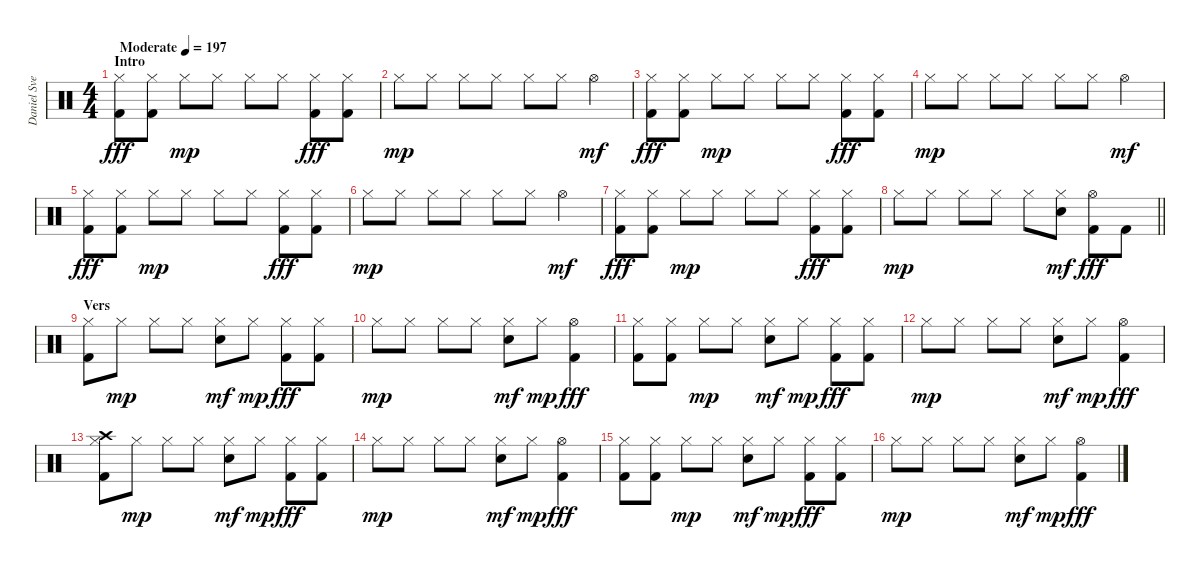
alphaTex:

\track ("Daniel Svensson" "Daniel Sve") {instrument percussion}
\staff {score}
\articulation defaults
\ts (4 4)
\section ("" "Intro")
\tempo (197 "Moderate")
\clef neutral
\ks c
("Hi-Hat (closed)" "Kick (hit) 2").8{dy fff} ("Hi-Hat (closed)" "Kick (hit) 2").8 "Hi-Hat (closed)".8{dy mp} "Hi-Hat (closed)".8 "Hi-Hat (closed)".8 "Hi-Hat (closed)".8 ("Hi-Hat (closed)" "Kick (hit) 2").8{dy fff} ("Hi-Hat (closed)" "Kick (hit) 2").8 |
"Hi-Hat (closed)".8{dy mp} "Hi-Hat (closed)".8 "Hi-Hat (closed)".8 "Hi-Hat (closed)".8 "Hi-Hat (closed)".8 "Hi-Hat (closed)".8 "Hi-Hat (open)".4{dy mf} |
("Hi-Hat (closed)" "Kick (hit) 2").8{dy fff} ("Hi-Hat (closed)" "Kick (hit) 2").8 "Hi-Hat (closed)".8{dy mp} "Hi-Hat (closed)".8 "Hi-Hat (closed)".8 "Hi-Hat (closed)".8 ("Hi-Hat (closed)" "Kick (hit) 2").8{dy fff} ("Hi-Hat (closed)" "Kick (hit) 2").8 |
"Hi-Hat (closed)".8{dy mp} "Hi-Hat (closed)".8 "Hi-Hat (closed)".8 "Hi-Hat (closed)".8 "Hi-Hat (closed)".8 "Hi-Hat (closed)".8 "Hi-Hat (open)".4{dy mf} |
("Hi-Hat (closed)" "Kick (hit) 2").8{dy fff} ("Hi-Hat (closed)" "Kick (hit) 2").8 "Hi-Hat (closed)".8{dy mp} "Hi-Hat (closed)".8 "Hi-Hat (closed)".8 "Hi-Hat (closed)".8 ("Hi-Hat (closed)" "Kick (hit) 2").8{dy fff} ("Hi-Hat (closed)" "Kick (hit) 2").8 |
"Hi-Hat (closed)".8{dy mp} "Hi-Hat (closed)".8 "Hi-Hat (closed)".8 "Hi-Hat (closed)".8 "Hi-Hat (closed)".8 "Hi-Hat (closed)".8 "Hi-Hat (open)".4{dy mf} |
("Hi-Hat (closed)" "Kick (hit) 2").8{dy fff} ("Hi-Hat (closed)" "Kick (hit) 2").8 "Hi-Hat (closed)".8{dy mp} "Hi-Hat (closed)".8 "Hi-Hat (closed)".8 "Hi-Hat (closed)".8 ("Hi-Hat (closed)" "Kick (hit) 2").8{dy fff} ("Hi-Hat (closed)" "Kick (hit) 2").8 |
\barLineRight lightlight "Hi-Hat (closed)".8{dy mp} "Hi-Hat (closed)".8 "Hi-Hat (closed)".8 "Hi-Hat (closed)".8 "Hi-Hat (closed)".8
("Hi-Hat (closed)" "Electric Snare (hit)").8{dy mf} ("Hi-Hat (open)" "Kick (hit) 2").8{dy fff} "Kick (hit) 2".8 |
\section ("" "Vers")
("Hi-Hat (closed)" "Kick (hit) 2").8 "Hi-Hat (closed)".8{dy mp} "Hi-Hat (closed)".8 "Hi-Hat (closed)".8 ("Hi-Hat (closed)" "Electric Snare (hit)").8{dy mf} "Hi-Hat (closed)".8{dy mp} ("Hi-Hat (closed)" "Kick (hit) 2").8{dy fff} ("Hi-Hat (closed)" "Kick (hit) 2").8 |
"Hi-Hat (closed)".8{dy mp} "Hi-Hat (closed)".8 "Hi-Hat (closed)".8 "Hi-Hat (closed)".8 ("Hi-Hat (closed)" "Electric Snare (hit)").8{dy mf} "Hi-Hat (closed)".8{dy mp} ("Hi-Hat (open)" "Kick (hit) 2").4{dy fff} |
("Hi-Hat (closed)" "Kick (hit) 2").8 ("Hi-Hat (closed)" "Kick (hit) 2").8 "Hi-Hat (closed)".8{dy mp} "Hi-Hat (closed)".8 ("Hi-Hat (closed)" "Electric Snare (hit)").8{dy mf} "Hi-Hat (closed)".8{dy mp} ("Hi-Hat (closed)" "Kick (hit) 2").8{dy fff} ("Hi-Hat (closed)" "Kick (hit) 2").8 |
"Hi-Hat (closed)".8{dy mp} "Hi-Hat (closed)".8 "Hi-Hat (closed)".8 "Hi-Hat (closed)".8 ("Hi-Hat (closed)" "Electric Snare (hit)").8{dy mf} "Hi-Hat (closed)".8{dy mp} ("Hi-Hat (open)" "Kick (hit) 2").4{dy fff} |
("Crash high (hit)" "Hi-Hat (closed)" "Kick (hit) 2").8 "Hi-Hat (closed)".8{dy mp} "Hi-Hat (closed)".8 "Hi-Hat (closed)".8 ("Hi-Hat (closed)" "Electric Snare (hit)").8{dy mf} "Hi-Hat (closed)".8{dy mp} ("Hi-Hat (closed)" "Kick (hit) 2").8{dy fff} ("Hi-Hat (closed)" "Kick (hit) 2").8 |
"Hi-Hat (closed)".8{dy mp} "Hi-Hat (closed)".8 "Hi-Hat (closed)".8 "Hi-Hat (closed)".8 ("Hi-Hat (closed)" "Electric Snare (hit)").8{dy mf} "Hi-Hat (closed)".8{dy mp} ("Hi-Hat (open)" "Kick (hit) 2").4{dy fff} |
("Hi-Hat (closed)" "Kick (hit) 2").8 ("Hi-Hat (closed)" "Kick (hit) 2").8 "Hi-Hat (closed)".8{dy mp} "Hi-Hat (closed)".8 ("Hi-Hat (closed)" "Electric Snare (hit)").8{dy mf} "Hi-Hat (closed)".8{dy mp} ("Hi-Hat (closed)" "Kick (hit) 2").8{dy fff} ("Hi-Hat (closed)" "Kick (hit) 2").8 |
"Hi-Hat (closed)".8{dy mp} "Hi-Hat (closed)".8 "Hi-Hat (closed)".8 "Hi-Hat (closed)".8 ("Hi-Hat (closed)" "Electric Snare (hit)").8{dy mf} "Hi-Hat (closed)".8{dy mp} ("Hi-Hat (open)" "Kick (hit) 2").4{dy fff}
